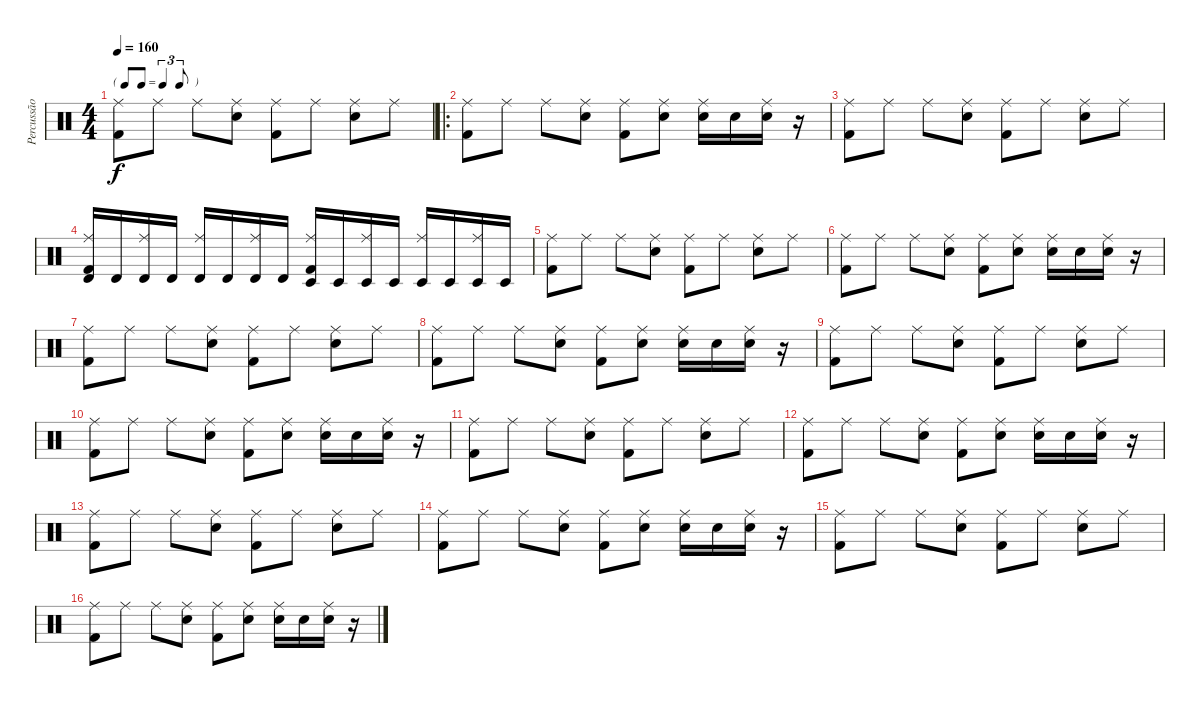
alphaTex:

\track ("Percussão" "Percussão") {instrument percussion}
\staff {score}
\articulation defaults
\ts (4 4)
\tf triplet8th
\tempo 160
\clef neutral
\ks c
("Ride (middle)" "Kick (hit) 2").8{dy f} "Ride (middle)".8 "Ride (middle)".8 ("Ride (middle)" "Snare (hit) 2").8 ("Ride (middle)" "Kick (hit) 2").8 "Ride (middle)".8 ("Ride (middle)" "Snare (hit) 2").8 "Ride (middle)".8 |
\ro
("Ride (middle)" "Kick (hit) 2").8 "Ride (middle)".8 "Ride (middle)".8 ("Ride (middle)" "Snare (hit) 2").8 ("Ride (middle)" "Kick (hit) 2").8 ("Ride (middle)" "Snare (hit) 2").8 ("Ride (middle)" "Snare (hit) 2").16 "Snare (hit) 2".16 ("Ride (middle)" "Snare (hit) 2").16 r.16 |
("Ride (middle)" "Kick (hit) 2").8 "Ride (middle)".8 "Ride (middle)".8 ("Ride (middle)" "Snare (hit) 2").8 ("Ride (middle)" "Kick (hit) 2").8 "Ride (middle)".8 ("Ride (middle)" "Snare (hit) 2").8 "Ride (middle)".8 |
("Ride (middle)" "Kick (hit) 2" "Timbale high (hit)").16 "Timbale high (hit)".16 ("Ride (middle)" "Timbale high (hit)").16 "Timbale high (hit)".16 ("Ride (middle)" "Timbale high (hit)").16 "Timbale high (hit)".16 ("Ride (middle)" "Timbale high (hit)").16 "Timbale high (hit)".16 ("Ride (middle)" "Kick (hit) 2" "Timbale low (hit)").16 "Timbale low (hit)".16 ("Ride (middle)" "Timbale low (hit)").16 "Timbale low (hit)".16 ("Ride (middle)" "Timbale low (hit)").16 "Timbale low (hit)".16 ("Ride (middle)" "Timbale low (hit)").16 "Timbale low (hit)".16 |
("Ride (middle)" "Kick (hit) 2").8 "Ride (middle)".8 "Ride (middle)".8 ("Ride (middle)" "Snare (hit) 2").8 ("Ride (middle)" "Kick (hit) 2").8 "Ride (middle)".8 ("Ride (middle)" "Snare (hit) 2").8 "Ride (middle)".8 |
("Ride (middle)" "Kick (hit) 2").8 "Ride (middle)".8 "Ride (middle)".8 ("Ride (middle)" "Snare (hit) 2").8 ("Ride (middle)" "Kick (hit) 2").8 ("Ride (middle)" "Snare (hit) 2").8 ("Ride (middle)" "Snare (hit) 2").16 "Snare (hit) 2".16 ("Ride (middle)" "Snare (hit) 2").16 r.16 |
("Ride (middle)" "Kick (hit) 2").8 "Ride (middle)".8 "Ride (middle)".8 ("Ride (middle)" "Snare (hit) 2").8 ("Ride (middle)" "Kick (hit) 2").8 "Ride (middle)".8 ("Ride (middle)" "Snare (hit) 2").8 "Ride (middle)".8 |
("Ride (middle)" "Kick (hit) 2").8 "Ride (middle)".8 "Ride (middle)".8 ("Ride (middle)" "Snare (hit) 2").8 ("Ride (middle)" "Kick (hit) 2").8 ("Ride (middle)" "Snare (hit) 2").8 ("Ride (middle)" "Snare (hit) 2").16 "Snare (hit) 2".16 ("Ride (middle)" "Snare (hit) 2").16 r.16 |
("Ride (middle)" "Kick (hit) 2").8 "Ride (middle)".8 "Ride (middle)".8 ("Ride (middle)" "Snare (hit) 2").8 ("Ride (middle)" "Kick (hit) 2").8 "Ride (middle)".8 ("Ride (middle)" "Snare (hit) 2").8 "Ride (middle)".8 |
("Ride (middle)" "Kick (hit) 2").8 "Ride (middle)".8 "Ride (middle)".8 ("Ride (middle)" "Snare (hit) 2").8 ("Ride (middle)" "Kick (hit) 2").8 ("Ride (middle)" "Snare (hit) 2").8 ("Ride (middle)" "Snare (hit) 2").16 "Snare (hit) 2".16 ("Ride (middle)" "Snare (hit) 2").16 r.16 |
("Ride (middle)" "Kick (hit) 2").8 "Ride (middle)".8 "Ride (middle)".8 ("Ride (middle)" "Snare (hit) 2").8 ("Ride (middle)" "Kick (hit) 2").8 "Ride (middle)".8 ("Ride (middle)" "Snare (hit) 2").8 "Ride (middle)".8 |
("Ride (middle)" "Kick (hit) 2").8 "Ride (middle)".8 "Ride (middle)".8 ("Ride (middle)" "Snare (hit) 2").8 ("Ride (middle)" "Kick (hit) 2").8 ("Ride (middle)" "Snare (hit) 2").8 ("Ride (middle)" "Snare (hit) 2").16 "Snare (hit) 2".16 ("Ride (middle)" "Snare (hit) 2").16 r.16 |
("Ride (middle)" "Kick (hit) 2").8 "Ride (middle)".8 "Ride (middle)".8 ("Ride (middle)" "Snare (hit) 2").8 ("Ride (middle)" "Kick (hit) 2").8 "Ride (middle)".8 ("Ride (middle)" "Snare (hit) 2").8 "Ride (middle)".8 |
("Ride (middle)" "Kick (hit) 2").8 "Ride (middle)".8 "Ride (middle)".8 ("Ride (middle)" "Snare (hit) 2").8 ("Ride (middle)" "Kick (hit) 2").8 ("Ride (middle)" "Snare (hit) 2").8 ("Ride (middle)" "Snare (hit) 2").16 "Snare (hit) 2".16 ("Ride (middle)" "Snare (hit) 2").16 r.16 |
("Ride (middle)" "Kick (hit) 2").8 "Ride (middle)".8 "Ride (middle)".8 ("Ride (middle)" "Snare (hit) 2").8 ("Ride (middle)" "Kick (hit) 2").8 "Ride (middle)".8 ("Ride (middle)" "Snare (hit) 2").8 "Ride (middle)".8 |
("Ride (middle)" "Kick (hit) 2").8 "Ride (middle)".8 "Ride (middle)".8 ("Ride (middle)" "Snare (hit) 2").8 ("Ride (middle)" "Kick (hit) 2").8 ("Ride (middle)" "Snare (hit) 2").8 ("Ride (middle)" "Snare (hit) 2").16 "Snare (hit) 2".16 ("Ride (middle)" "Snare (hit) 2").16 r.16
